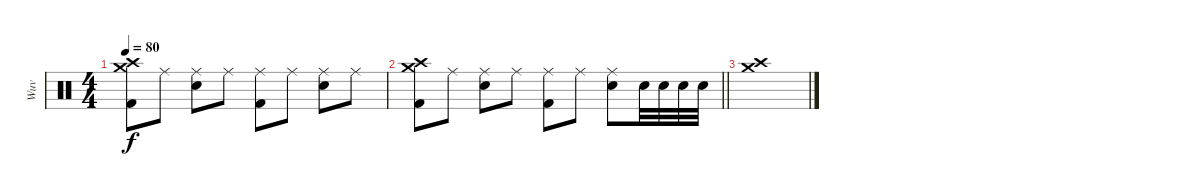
\track ("Wuv" "Wuv") {instrument percussion}
\staff {score}
\articulation defaults
\ts (4 4)
\tempo 80
\clef neutral
\ks c
("Crash high (hit)" "Crash medium (hit)" "Kick (hit) 2").8{dy f} "Ride (middle)".8 ("Ride (middle)" "Electric Snare (hit)").8 "Ride (middle)".8 ("Ride (middle)" "Kick (hit) 2").8 "Ride (middle)".8 ("Ride (middle)" "Electric Snare (hit)").8 "Ride (middle)".8 |
\barLineRight lightlight
("Crash high (hit)" "Crash medium (hit)" "Kick (hit) 2").8 "Ride (middle)".8 ("Ride (middle)" "Electric Snare (hit)").8 "Ride (middle)".8 ("Ride (middle)" "Kick (hit) 2").8 "Ride (middle)".8 ("Ride (middle)" "Electric Snare (hit)").8 "Electric Snare (hit)".32 "Electric Snare (hit)".32 "Electric Snare (hit)".32 "Electric Snare (hit)".32 |
("Crash high (hit)" "Crash medium (hit)").1
